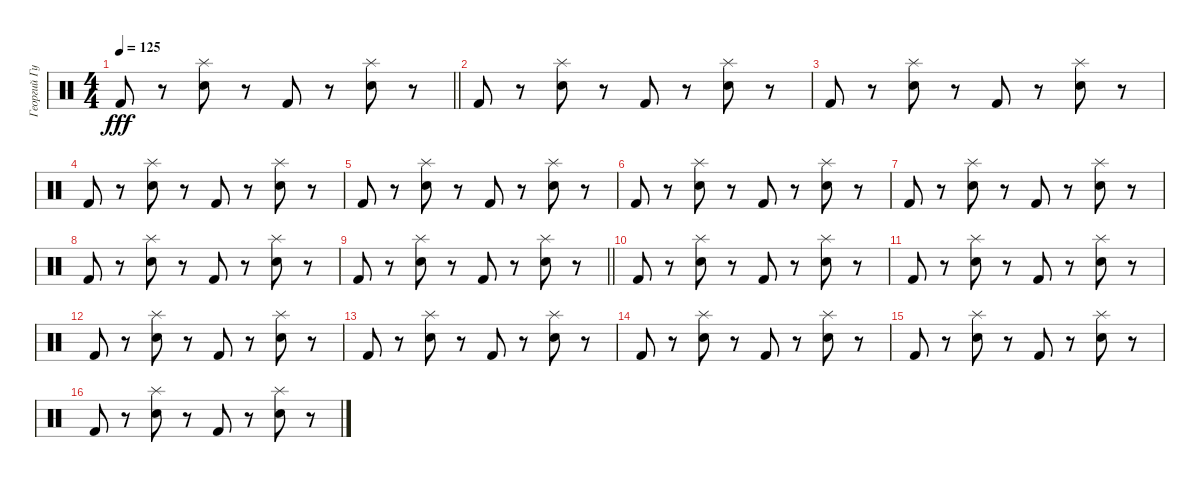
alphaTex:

\track ("Георгий Гурьянов" "Георгий Гу") {instrument percussion}
\staff {score}
\articulation defaults
\ts (4 4)
\tempo 125
\clef neutral
\barLineRight lightlight
\ks c "Kick (hit) 2".8{dy fff}
r.8 ("Snare (hit) 2" "Splash (hit)").8 r.8 "Kick (hit) 2".8 r.8 ("Snare (hit) 2" "Splash (hit)").8 r.8 |
"Kick (hit) 2".8 r.8 ("Snare (hit) 2" "Splash (hit)").8 r.8 "Kick (hit) 2".8 r.8 ("Snare (hit) 2" "Splash (hit)").8 r.8 |
"Kick (hit) 2".8 r.8 ("Snare (hit) 2" "Splash (hit)").8 r.8 "Kick (hit) 2".8 r.8 ("Snare (hit) 2" "Splash (hit)").8 r.8 |
"Kick (hit) 2".8 r.8 ("Snare (hit) 2" "Splash (hit)").8 r.8 "Kick (hit) 2".8 r.8 ("Snare (hit) 2" "Splash (hit)").8 r.8 |
"Kick (hit) 2".8 r.8 ("Snare (hit) 2" "Splash (hit)").8 r.8 "Kick (hit) 2".8 r.8 ("Snare (hit) 2" "Splash (hit)").8 r.8 |
"Kick (hit) 2".8 r.8 ("Snare (hit) 2" "Splash (hit)").8 r.8 "Kick (hit) 2".8 r.8 ("Snare (hit) 2" "Splash (hit)").8 r.8 |
"Kick (hit) 2".8 r.8 ("Snare (hit) 2" "Splash (hit)").8 r.8 "Kick (hit) 2".8 r.8 ("Snare (hit) 2" "Splash (hit)").8 r.8 |
"Kick (hit) 2".8 r.8 ("Snare (hit) 2" "Splash (hit)").8 r.8 "Kick (hit) 2".8 r.8 ("Snare (hit) 2" "Splash (hit)").8 r.8 |
\barLineRight lightlight "Kick (hit) 2".8
r.8 ("Snare (hit) 2" "Splash (hit)").8 r.8 "Kick (hit) 2".8 r.8 ("Snare (hit) 2" "Splash (hit)").8 r.8 |
"Kick (hit) 2".8 r.8 ("Snare (hit) 2" "Splash (hit)").8 r.8 "Kick (hit) 2".8 r.8 ("Snare (hit) 2" "Splash (hit)").8 r.8 |
"Kick (hit) 2".8 r.8 ("Snare (hit) 2" "Splash (hit)").8 r.8 "Kick (hit) 2".8 r.8 ("Snare (hit) 2" "Splash (hit)").8 r.8 |
"Kick (hit) 2".8 r.8 ("Snare (hit) 2" "Splash (hit)").8 r.8 "Kick (hit) 2".8 r.8 ("Snare (hit) 2" "Splash (hit)").8 r.8 |
"Kick (hit) 2".8 r.8 ("Snare (hit) 2" "Splash (hit)").8 r.8 "Kick (hit) 2".8 r.8 ("Snare (hit) 2" "Splash (hit)").8 r.8 |
"Kick (hit) 2".8 r.8 ("Snare (hit) 2" "Splash (hit)").8 r.8 "Kick (hit) 2".8 r.8 ("Snare (hit) 2" "Splash (hit)").8 r.8 |
"Kick (hit) 2".8 r.8 ("Snare (hit) 2" "Splash (hit)").8 r.8 "Kick (hit) 2".8 r.8 ("Snare (hit) 2" "Splash (hit)").8 r.8 |
"Kick (hit) 2".8 r.8 ("Snare (hit) 2" "Splash (hit)").8 r.8 "Kick (hit) 2".8 r.8 ("Snare (hit) 2" "Splash (hit)").8 r.8
